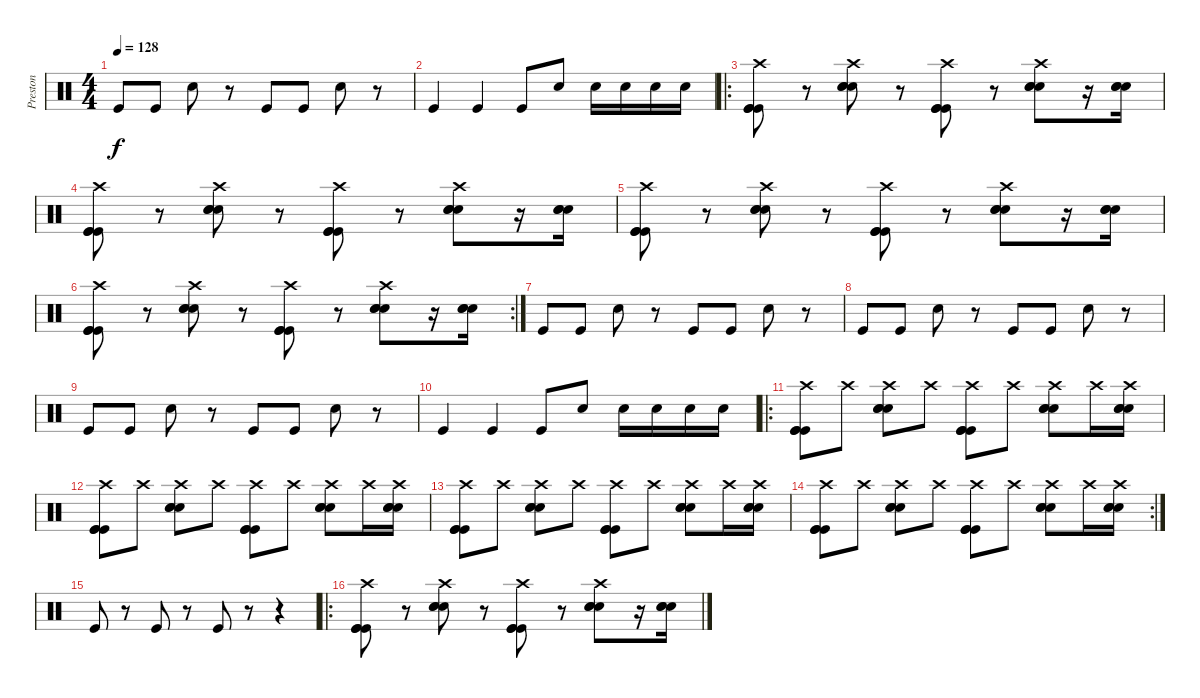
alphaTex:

\track ("Preston" "Preston") {instrument percussion}
\staff {score}
\articulation defaults
\ts (4 4)
\tempo 128
\clef neutral
\ks c "Kick (hit)".8{dy f} "Kick (hit)".8 "Electric Snare (hit)".8
r.8 "Kick (hit)".8 "Kick (hit)".8 "Electric Snare (hit)".8 r.8 |
"Kick (hit)".4 "Kick (hit)".4 "Kick (hit)".8 "Electric Snare (hit)".8 "Electric Snare (hit)".16 "Electric Snare (hit)".16 "Electric Snare (hit)".16 "Electric Snare (hit)".16 |
\ro
("Crash high (hit)" "Kick (hit)" "Kick (hit)" "Kick (hit)").8 r.8 ("Crash high (hit)" "Electric Snare (hit)" "Electric Snare (hit)" "Electric Snare (hit)").8 r.8 ("Crash high (hit)" "Kick (hit)" "Kick (hit)" "Kick (hit)").8 r.8 ("Crash high (hit)" "Electric Snare (hit)" "Electric Snare (hit)" "Electric Snare (hit)").8 r.16 ("Electric Snare (hit)" "Electric Snare (hit)" "Electric Snare (hit)").16 |
("Crash high (hit)" "Kick (hit)" "Kick (hit)" "Kick (hit)").8 r.8 ("Crash high (hit)" "Electric Snare (hit)" "Electric Snare (hit)" "Electric Snare (hit)").8 r.8 ("Crash high (hit)" "Kick (hit)" "Kick (hit)" "Kick (hit)").8 r.8 ("Crash high (hit)" "Electric Snare (hit)" "Electric Snare (hit)" "Electric Snare (hit)").8 r.16 ("Electric Snare (hit)" "Electric Snare (hit)" "Electric Snare (hit)").16 |
("Crash high (hit)" "Kick (hit)" "Kick (hit)" "Kick (hit)").8 r.8 ("Crash high (hit)" "Electric Snare (hit)" "Electric Snare (hit)" "Electric Snare (hit)").8 r.8 ("Crash high (hit)" "Kick (hit)" "Kick (hit)" "Kick (hit)").8 r.8 ("Crash high (hit)" "Electric Snare (hit)" "Electric Snare (hit)" "Electric Snare (hit)").8 r.16 ("Electric Snare (hit)" "Electric Snare (hit)" "Electric Snare (hit)").16 |
\rc 2
("Crash high (hit)" "Kick (hit)" "Kick (hit)" "Kick (hit)").8 r.8 ("Crash high (hit)" "Electric Snare (hit)" "Electric Snare (hit)" "Electric Snare (hit)").8 r.8 ("Crash high (hit)" "Kick (hit)" "Kick (hit)" "Kick (hit)").8 r.8 ("Crash high (hit)" "Electric Snare (hit)" "Electric Snare (hit)" "Electric Snare (hit)").8 r.16 ("Electric Snare (hit)" "Electric Snare (hit)" "Electric Snare (hit)").16 |
"Kick (hit)".8 "Kick (hit)".8 "Electric Snare (hit)".8 r.8 "Kick (hit)".8 "Kick (hit)".8 "Electric Snare (hit)".8 r.8 |
"Kick (hit)".8 "Kick (hit)".8 "Electric Snare (hit)".8 r.8 "Kick (hit)".8 "Kick (hit)".8 "Electric Snare (hit)".8 r.8 |
"Kick (hit)".8 "Kick (hit)".8 "Electric Snare (hit)".8 r.8 "Kick (hit)".8 "Kick (hit)".8 "Electric Snare (hit)".8 r.8 |
"Kick (hit)".4 "Kick (hit)".4 "Kick (hit)".8 "Electric Snare (hit)".8 "Electric Snare (hit)".16 "Electric Snare (hit)".16 "Electric Snare (hit)".16 "Electric Snare (hit)".16 |
\ro
("Crash high (hit)" "Kick (hit)" "Kick (hit)" "Kick (hit)").8 "Crash high (hit)".8 ("Crash high (hit)" "Electric Snare (hit)" "Electric Snare (hit)" "Electric Snare (hit)").8 "Crash high (hit)".8 ("Crash high (hit)" "Kick (hit)" "Kick (hit)" "Kick (hit)").8 "Crash high (hit)".8 ("Crash high (hit)" "Electric Snare (hit)" "Electric Snare (hit)" "Electric Snare (hit)").8 "Crash high (hit)".16 ("Crash high (hit)" "Electric Snare (hit)" "Electric Snare (hit)" "Electric Snare (hit)").16 |
("Crash high (hit)" "Kick (hit)" "Kick (hit)" "Kick (hit)").8 "Crash high (hit)".8 ("Crash high (hit)" "Electric Snare (hit)" "Electric Snare (hit)" "Electric Snare (hit)").8 "Crash high (hit)".8 ("Crash high (hit)" "Kick (hit)" "Kick (hit)" "Kick (hit)").8 "Crash high (hit)".8 ("Crash high (hit)" "Electric Snare (hit)" "Electric Snare (hit)" "Electric Snare (hit)").8 "Crash high (hit)".16 ("Crash high (hit)" "Electric Snare (hit)" "Electric Snare (hit)" "Electric Snare (hit)").16 |
("Crash high (hit)" "Kick (hit)" "Kick (hit)" "Kick (hit)").8 "Crash high (hit)".8 ("Crash high (hit)" "Electric Snare (hit)" "Electric Snare (hit)" "Electric Snare (hit)").8 "Crash high (hit)".8 ("Crash high (hit)" "Kick (hit)" "Kick (hit)" "Kick (hit)").8 "Crash high (hit)".8 ("Crash high (hit)" "Electric Snare (hit)" "Electric Snare (hit)" "Electric Snare (hit)").8 "Crash high (hit)".16 ("Crash high (hit)" "Electric Snare (hit)" "Electric Snare (hit)" "Electric Snare (hit)").16 |
\rc 2
("Crash high (hit)" "Kick (hit)" "Kick (hit)" "Kick (hit)").8 "Crash high (hit)".8 ("Crash high (hit)" "Electric Snare (hit)" "Electric Snare (hit)" "Electric Snare (hit)").8 "Crash high (hit)".8 ("Crash high (hit)" "Kick (hit)" "Kick (hit)" "Kick (hit)").8 "Crash high (hit)".8 ("Crash high (hit)" "Electric Snare (hit)" "Electric Snare (hit)" "Electric Snare (hit)").8 "Crash high (hit)".16 ("Crash high (hit)" "Electric Snare (hit)" "Electric Snare (hit)" "Electric Snare (hit)").16 |
"Kick (hit)".8 r.8 "Kick (hit)".8 r.8 "Kick (hit)".8 r.8 r.4 |
\ro
("Crash high (hit)" "Kick (hit)" "Kick (hit)" "Kick (hit)").8 r.8 ("Crash high (hit)" "Electric Snare (hit)" "Electric Snare (hit)" "Electric Snare (hit)").8 r.8 ("Crash high (hit)" "Kick (hit)" "Kick (hit)" "Kick (hit)").8 r.8 ("Crash high (hit)" "Electric Snare (hit)" "Electric Snare (hit)" "Electric Snare (hit)").8 r.16 ("Electric Snare (hit)" "Electric Snare (hit)" "Electric Snare (hit)").16
